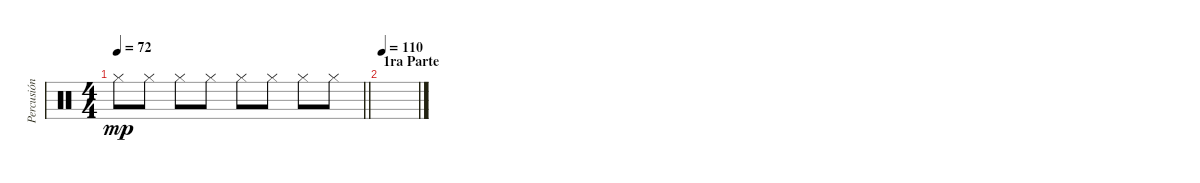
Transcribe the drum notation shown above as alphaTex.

\track ("Percusión" "Percusión") {instrument percussion}
\staff {score}
\articulation defaults
\ts (4 4)
\tempo 72
\clef neutral
\barLineRight lightlight
\ks c "Hi-Hat (closed)".8{dy mp} "Hi-Hat (closed)".8 "Hi-Hat (closed)".8 "Hi-Hat (closed)".8 "Hi-Hat (closed)".8 "Hi-Hat (closed)".8 "Hi-Hat (closed)".8 "Hi-Hat (closed)".8
|
\section ("" "1ra Parte")
\tempo 110
